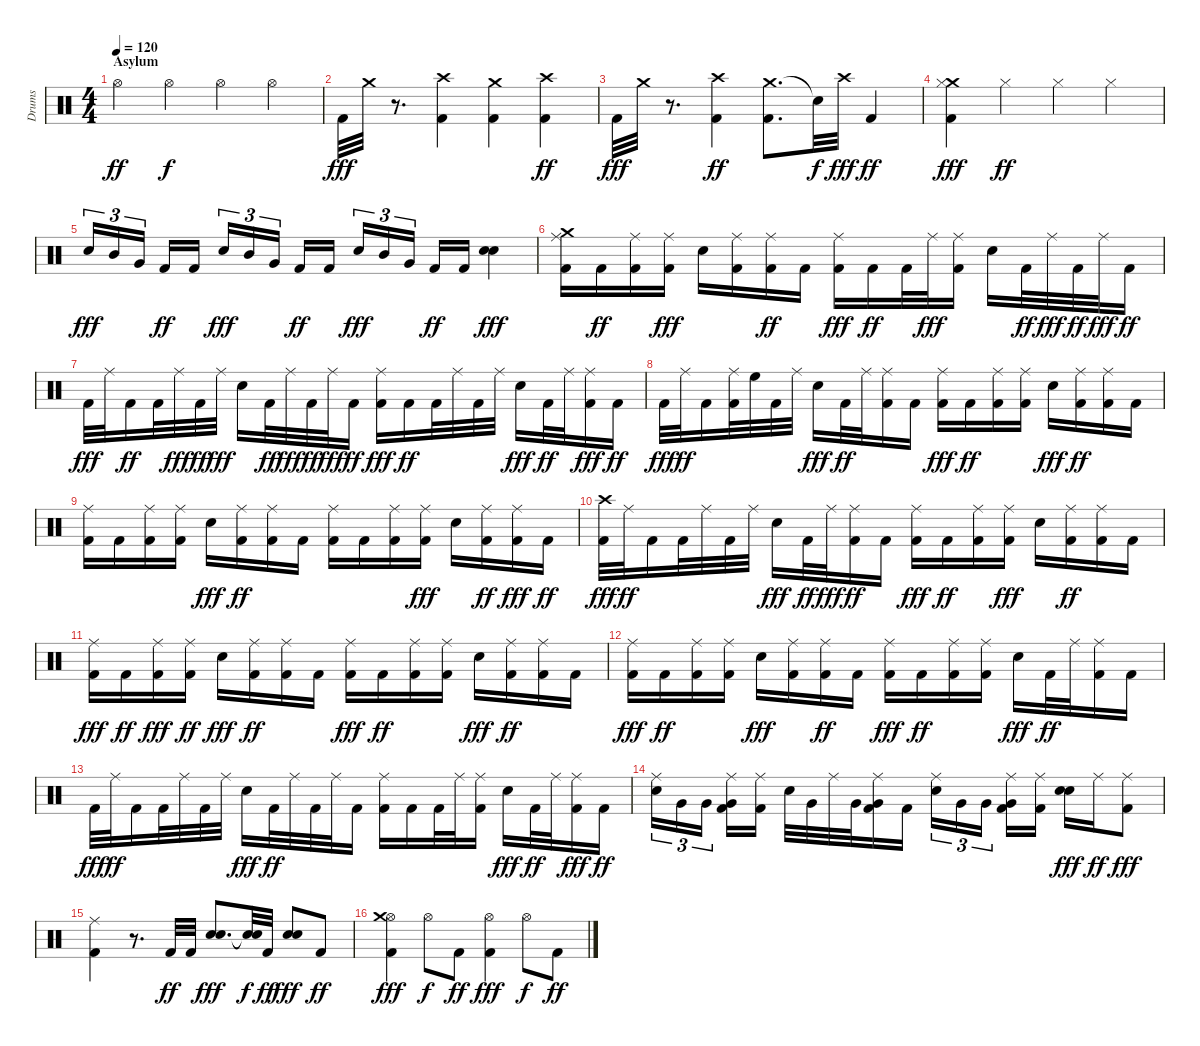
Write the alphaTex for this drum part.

\track ("Drums" "Drums") {instrument percussion}
\staff {score}
\articulation defaults
\ts (4 4)
\section ("" "Asylum")
\tempo 120
\clef neutral
\ks c "Hi-Hat (open)".4{dy ff} "Hi-Hat (open)".4{dy f} "Hi-Hat (open)".4 "Hi-Hat (open)".4
|
"Kick (hit) 2".32{dy fff} "Crash medium (hit)".32 r.8{d} ("Kick (hit) 2" "Crash high (hit)").4 ("Kick (hit) 2" "Crash medium (hit)").4 ("Kick (hit) 2" "Crash high (hit)").4{dy ff} |
"Kick (hit) 2".32{dy fff} "Crash medium (hit)".32 r.8{d} ("Crash high (hit)" "Kick (hit) 2").4{dy ff} ("Crash medium (hit)" "Kick (hit) 2").8{d} "Snare (hit)"{t}.32{dy f} "Crash high (hit)".32{dy fff} "Kick (hit) 2".4{dy ff} |
("Crash medium (hit)" "Hi-Hat (closed)" "Kick (hit) 2").4{dy fff} "Hi-Hat (closed)".4{dy ff} "Hi-Hat (closed)".4 "Hi-Hat (closed)".4 |
"Snare (hit) 2".16{tu (3 2) dy fff} "Mid Tom (hit)".16{tu (3 2)} "Very Low Tom (hit)".16{tu (3 2) beam splitsecondary} "Kick (hit) 2".16{dy ff} "Kick (hit) 2".16 "Snare (hit) 2".16{tu (3 2) dy fff} "Mid Tom (hit)".16{tu (3 2)} "Very Low Tom (hit)".16{tu (3 2) beam splitsecondary} "Kick (hit) 2".16{dy ff} "Kick (hit) 2".16 "Snare (hit) 2".16{tu (3 2) dy fff} "Mid Tom (hit)".16{tu (3 2)} "Very Low Tom (hit)".16{tu (3 2) beam splitsecondary} "Kick (hit) 2".16{dy ff} "Kick (hit) 2".16 ("Snare (hit) 2" "Electric Snare (hit)").4{dy fff} |
("Ride (middle)" "Kick (hit) 2" "Crash medium (hit)").16 "Kick (hit) 2".16{dy ff} ("Kick (hit) 2" "Ride (middle)").16 ("Kick (hit) 2" "Ride (middle)").16{dy fff} "Snare (hit) 2".16 ("Kick (hit) 2" "Ride (middle)").16 ("Kick (hit) 2" "Ride (middle)").16{dy ff} "Kick (hit) 2".16 ("Kick (hit) 2" "Ride (middle)").16{dy fff} "Kick (hit) 2".16{dy ff} "Kick (hit) 2".32 "Ride (middle)".32{dy fff} ("Kick (hit) 2" "Ride (middle)").16 "Snare (hit) 2".16 "Kick (hit) 2".32{dy ff} "Ride (middle)".32{dy fff} "Kick (hit) 2".32{dy ff} "Ride (middle)".32{dy fff} "Kick (hit) 2".16{dy ff} |
"Kick (hit) 2".32{dy fff} "Ride (middle)".32 "Kick (hit) 2".16{dy ff} "Kick (hit) 2".32 "Ride (middle)".32{dy fff} "Kick (hit) 2".32{dy ff} "Ride (middle)".32{dy fff} "Snare (hit) 2".16 "Kick (hit) 2".32{dy ff} "Ride (middle)".32{dy fff} "Kick (hit) 2".32{dy ff} "Ride (middle)".32{dy fff} "Kick (hit) 2".16{dy ff} ("Kick (hit) 2" "Ride (middle)").16{dy fff} "Kick (hit) 2".16{dy ff} "Kick (hit) 2".32 "Ride (middle)".32 "Kick (hit) 2".32 "Ride (middle)".32 "Snare (hit) 2".16{dy fff} "Kick (hit) 2".32{dy ff} "Ride (middle)".32 ("Kick (hit) 2" "Ride (middle)").16{dy fff} "Kick (hit) 2".16{dy ff} |
"Kick (hit) 2".32{dy fff} "Ride (middle)".32{dy ff} "Kick (hit) 2".16 ("Kick (hit) 2" "Ride (middle)").32 "High Floor Tom (hit)".32 "Kick (hit) 2".32 "Ride (middle)".32 "Snare (hit) 2".16{dy fff} "Kick (hit) 2".32{dy ff} "Ride (middle)".32 ("Kick (hit) 2" "Ride (middle)").16 "Kick (hit) 2".16 ("Kick (hit) 2" "Ride (middle)").16{dy fff} "Kick (hit) 2".16{dy ff} ("Kick (hit) 2" "Ride (middle)").16 ("Kick (hit) 2" "Ride (middle)").16 "Snare (hit) 2".16{dy fff} ("Kick (hit) 2" "Ride (middle)").16{dy ff} ("Ride (middle)" "Kick (hit) 2").16 "Kick (hit) 2".16 |
("Kick (hit) 2" "Ride (middle)").16 "Kick (hit) 2".16 ("Kick (hit) 2" "Ride (middle)").16 ("Kick (hit) 2" "Ride (middle)").16 "Snare (hit) 2".16{dy fff} ("Kick (hit) 2" "Ride (middle)").16{dy ff} ("Kick (hit) 2" "Ride (middle)").16 "Kick (hit) 2".16 ("Kick (hit) 2" "Ride (middle)").16 "Kick (hit) 2".16 ("Kick (hit) 2" "Ride (middle)").16 ("Kick (hit) 2" "Ride (middle)").16{dy fff} "Snare (hit) 2".16 ("Kick (hit) 2" "Ride (middle)").16{dy ff} ("Kick (hit) 2" "Ride (middle)").16{dy fff} "Kick (hit) 2".16{dy ff} |
("Kick (hit) 2" "Crash high (hit)").32{dy fff} "Ride (middle)".32{dy ff} "Kick (hit) 2".16 "Kick (hit) 2".32 "Ride (middle)".32 "Kick (hit) 2".32 "Ride (middle)".32 "Snare (hit) 2".16{dy fff} "Kick (hit) 2".32{dy ff} "Ride (middle)".32{dy fff} ("Kick (hit) 2" "Ride (middle)").16{dy ff} "Kick (hit) 2".16 ("Ride (middle)" "Kick (hit) 2").16{dy fff} "Kick (hit) 2".16{dy ff} ("Kick (hit) 2" "Ride (middle)").16 ("Kick (hit) 2" "Ride (middle)").16{dy fff} "Snare (hit) 2".16 ("Kick (hit) 2" "Ride (middle)").16{dy ff} ("Ride (middle)" "Kick (hit) 2").16 "Kick (hit) 2".16 |
("Ride (middle)" "Kick (hit) 2").16{dy fff} "Kick (hit) 2".16{dy ff} ("Kick (hit) 2" "Ride (middle)").16{dy fff} ("Kick (hit) 2" "Ride (middle)").16{dy ff} "Snare (hit) 2".16{dy fff} ("Ride (middle)" "Kick (hit) 2").16{dy ff} ("Ride (middle)" "Kick (hit) 2").16 "Kick (hit) 2".16 ("Ride (middle)" "Kick (hit) 2").16{dy fff} "Kick (hit) 2".16{dy ff} ("Kick (hit) 2" "Ride (middle)").16 ("Ride (middle)" "Kick (hit) 2").16 "Snare (hit) 2".16{dy fff} ("Kick (hit) 2" "Ride (middle)").16{dy ff} ("Ride (middle)" "Kick (hit) 2").16 "Kick (hit) 2".16 |
("Ride (middle)" "Kick (hit) 2").16{dy fff} "Kick (hit) 2".16{dy ff} ("Ride (middle)" "Kick (hit) 2").16 ("Ride (middle)" "Kick (hit) 2").16 "Snare (hit) 2".16{dy fff} ("Kick (hit) 2" "Ride (middle)").16 ("Kick (hit) 2" "Ride (middle)").16{dy ff} "Kick (hit) 2".16 ("Kick (hit) 2" "Ride (middle)").16{dy fff} "Kick (hit) 2".16{dy ff} ("Kick (hit) 2" "Ride (middle)").16 ("Kick (hit) 2" "Ride (middle)").16 "Snare (hit) 2".16{dy fff} "Kick (hit) 2".32{dy ff} "Ride (middle)".32 ("Kick (hit) 2" "Ride (middle)").16 "Kick (hit) 2".16 |
"Kick (hit) 2".32{dy fff} "Ride (middle)".32{dy ff} "Kick (hit) 2".16 "Kick (hit) 2".32 "Ride (middle)".32 "Kick (hit) 2".32 "Ride (middle)".32 "Snare (hit) 2".16{dy fff} "Kick (hit) 2".32{dy ff} "Ride (middle)".32 "Kick (hit) 2".32 "Ride (middle)".32 "Kick (hit) 2".16 ("Kick (hit) 2" "Ride (middle)").16 "Kick (hit) 2".16 "Kick (hit) 2".32 "Ride (middle)".32 ("Kick (hit) 2" "Ride (middle)").16 "Snare (hit) 2".16{dy fff} "Kick (hit) 2".32{dy ff} "Ride (middle)".32 ("Kick (hit) 2" "Ride (middle)").16{dy fff} "Kick (hit) 2".16{dy ff} |
("Snare (hit) 2" "Ride (middle)").16{tu (3 2)} "Very Low Tom (hit)".16{tu (3 2)} "Very Low Tom (hit)".16{tu (3 2) beam splitsecondary} ("Kick (hit) 2" "Very Low Tom (hit)" "Ride (middle)").16 ("Ride (middle)" "Kick (hit) 2").16 "Snare (hit) 2".32 "Very Low Tom (hit)".32 "Ride (middle)".32 "Very Low Tom (hit)".32 ("Ride (middle)" "Kick (hit) 2" "Very Low Tom (hit)").16 "Kick (hit) 2".16 ("Ride (middle)" "Snare (hit) 2").16{tu (3 2)} "Very Low Tom (hit)".16{tu (3 2)} "Very Low Tom (hit)".16{tu (3 2) beam splitsecondary} ("Ride (middle)" "Kick (hit) 2" "Very Low Tom (hit)").16 ("Ride (middle)" "Kick (hit) 2").16 ("Snare (hit) 2" "Electric Snare (hit)").16{dy fff} "Ride (middle)".16{dy ff} ("Kick (hit) 2" "Ride (middle)").8{dy fff} |
("Kick (hit) 2" "Ride (middle)").4 r.8{d} "Kick (hit) 2".32{dy ff} "Kick (hit) 2".32 ("Snare (hit) 2" "Electric Snare (hit)").8{d dy fff} ("Snare (hit)"{t} "Snare (hit)"{t}).32{dy f} "Kick (hit) 2".32{dy ff} ("Snare (hit) 2" "Electric Snare (hit)").8{dy fff} "Kick (hit) 2".8{dy ff} |
("Hi-Hat (open)" "Kick (hit) 2" "Crash medium (hit)").4{dy fff} "Hi-Hat (open)".8{dy f} "Kick (hit) 2".8{dy ff} ("Hi-Hat (open)" "Kick (hit) 2").4{dy fff} "Hi-Hat (open)".8{dy f} "Kick (hit) 2".8{dy ff}
